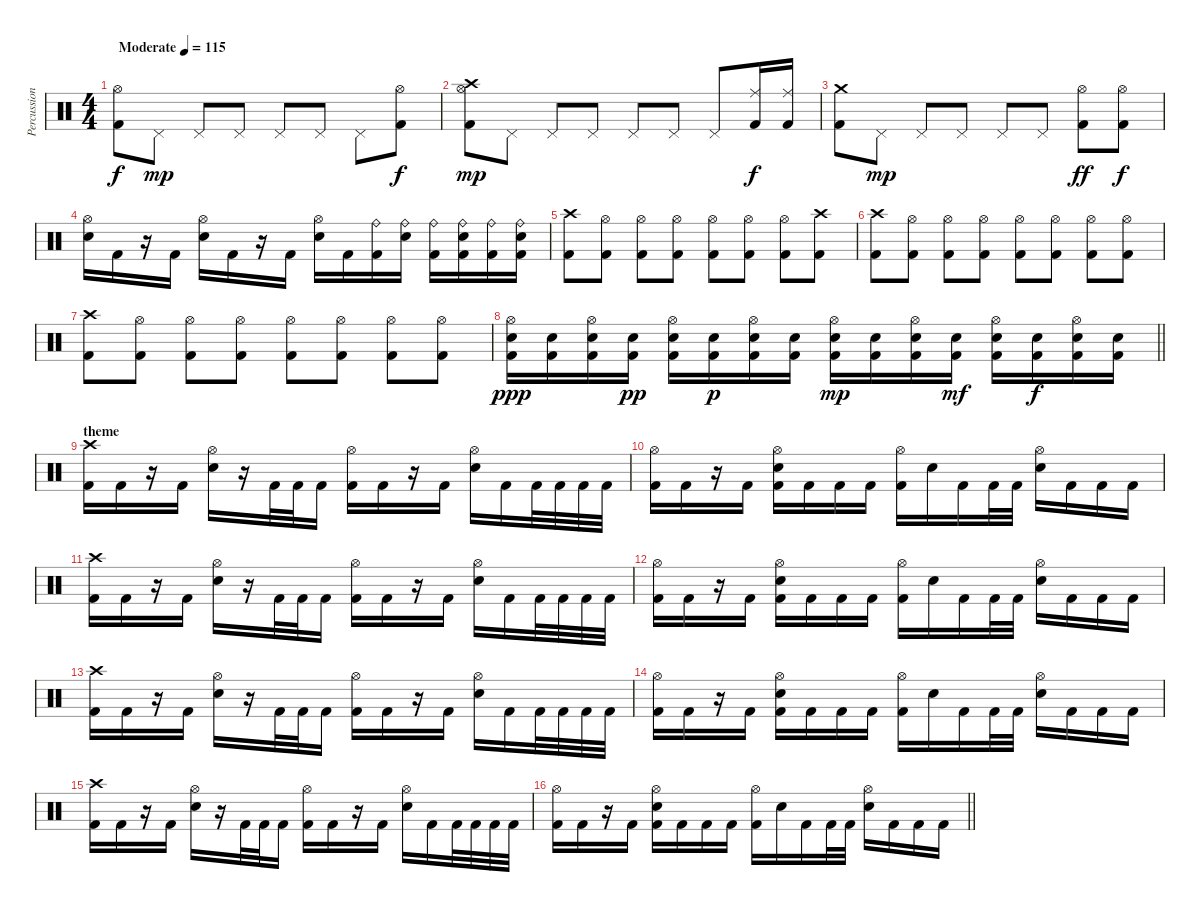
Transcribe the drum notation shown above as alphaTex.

\track ("Percussion" "Percussion") {instrument percussion}
\staff {score}
\articulation defaults
\ts (4 4)
\tempo (115 "Moderate")
\clef neutral
\ks c
("Hi-Hat (open)" "Kick (hit) 2").8{dy f} "Pedal Hi-Hat (hit)".8{dy mp} "Pedal Hi-Hat (hit)".8 "Pedal Hi-Hat (hit)".8 "Pedal Hi-Hat (hit)".8 "Pedal Hi-Hat (hit)".8 "Pedal Hi-Hat (hit)".8 ("Hi-Hat (open)" "Kick (hit) 2").8{dy f} |
("Hi-Hat (open)" "Crash high (hit)" "Kick (hit) 2").8{dy mp} "Pedal Hi-Hat (hit)".8 "Pedal Hi-Hat (hit)".8 "Pedal Hi-Hat (hit)".8 "Pedal Hi-Hat (hit)".8 "Pedal Hi-Hat (hit)".8 "Pedal Hi-Hat (hit)".8 ("Ride (middle)" "Kick (hit) 2").16{dy f} ("Ride (middle)" "Kick (hit) 2").16 |
("Crash medium (hit)" "Kick (hit) 2").8 "Pedal Hi-Hat (hit)".8{dy mp} "Pedal Hi-Hat (hit)".8 "Pedal Hi-Hat (hit)".8 "Pedal Hi-Hat (hit)".8 "Pedal Hi-Hat (hit)".8 ("Hi-Hat (open)" "Kick (hit) 2").8{dy ff} ("Hi-Hat (open)" "Kick (hit) 2").8{dy f} |
("Hi-Hat (open)" "Snare (hit) 2").16 "Kick (hit) 2".16 r.16 "Kick (hit) 2".16 ("Hi-Hat (open)" "Snare (hit) 2").16 "Kick (hit) 2".16 r.16 "Kick (hit) 2".16 ("Hi-Hat (open)" "Snare (hit) 2").16 "Kick (hit) 2".16 ("Ride (bell)" "Kick (hit) 2").16 ("Ride (bell)" "Snare (hit) 2").16 ("Ride (bell)" "Kick (hit) 2").16 ("Ride (bell)" "Snare (hit) 2" "Kick (hit) 2").16 ("Ride (bell)" "Kick (hit) 2").16 ("Ride (bell)" "Snare (hit) 2" "Kick (hit) 2").16 |
("Crash high (hit)" "Kick (hit) 2").8 ("Hi-Hat (open)" "Kick (hit) 2").8 ("Hi-Hat (open)" "Kick (hit) 2").8 ("Hi-Hat (open)" "Kick (hit) 2").8 ("Hi-Hat (open)" "Kick (hit) 2").8 ("Hi-Hat (open)" "Kick (hit) 2").8 ("Hi-Hat (open)" "Kick (hit) 2").8 ("Crash high (hit)" "Kick (hit) 2").8 |
("Crash high (hit)" "Kick (hit) 2").8 ("Hi-Hat (open)" "Kick (hit) 2").8 ("Hi-Hat (open)" "Kick (hit) 2").8 ("Hi-Hat (open)" "Kick (hit) 2").8 ("Hi-Hat (open)" "Kick (hit) 2").8 ("Hi-Hat (open)" "Kick (hit) 2").8 ("Hi-Hat (open)" "Kick (hit) 2").8 ("Hi-Hat (open)" "Kick (hit) 2").8 |
("Crash high (hit)" "Kick (hit) 2").8 ("Hi-Hat (open)" "Kick (hit) 2").8 ("Hi-Hat (open)" "Kick (hit) 2").8 ("Hi-Hat (open)" "Kick (hit) 2").8 ("Hi-Hat (open)" "Kick (hit) 2").8 ("Hi-Hat (open)" "Kick (hit) 2").8 ("Hi-Hat (open)" "Kick (hit) 2").8 ("Hi-Hat (open)" "Kick (hit) 2").8 |
\barLineRight lightlight
("Hi-Hat (open)" "Snare (hit) 2" "Kick (hit) 2").16{dy ppp} ("Snare (hit) 2" "Kick (hit) 2").16 ("Hi-Hat (open)" "Snare (hit) 2" "Kick (hit) 2").16 ("Snare (hit) 2" "Kick (hit) 2").16{dy pp} ("Hi-Hat (open)" "Snare (hit) 2" "Kick (hit) 2").16 ("Snare (hit) 2" "Kick (hit) 2").16{dy p} ("Hi-Hat (open)" "Snare (hit) 2" "Kick (hit) 2").16 ("Snare (hit) 2" "Kick (hit) 2").16 ("Hi-Hat (open)" "Snare (hit) 2" "Kick (hit) 2").16{dy mp} ("Snare (hit) 2" "Kick (hit) 2").16 ("Hi-Hat (open)" "Snare (hit) 2" "Kick (hit) 2").16 ("Snare (hit) 2" "Kick (hit) 2").16{dy mf} ("Hi-Hat (open)" "Snare (hit) 2" "Kick (hit) 2").16 ("Snare (hit) 2" "Kick (hit) 2").16{dy f} ("Hi-Hat (open)" "Snare (hit) 2" "Kick (hit) 2").16 ("Snare (hit) 2" "Kick (hit) 2").16 |
\section ("" "theme")
("Crash high (hit)" "Kick (hit) 2").16 "Kick (hit) 2".16 r.16 "Kick (hit) 2".16 ("Hi-Hat (open)" "Snare (hit) 2").16 r.16 "Kick (hit) 2".32 "Kick (hit) 2".32 "Kick (hit) 2".16 ("Hi-Hat (open)" "Kick (hit) 2").16 "Kick (hit) 2".16 r.16 "Kick (hit) 2".16 ("Hi-Hat (open)" "Snare (hit) 2").16 "Kick (hit) 2".16 "Kick (hit) 2".32 "Kick (hit) 2".32 "Kick (hit) 2".32 "Kick (hit) 2".32 |
("Hi-Hat (open)" "Kick (hit) 2").16 "Kick (hit) 2".16 r.16 "Kick (hit) 2".16 ("Hi-Hat (open)" "Snare (hit) 2" "Kick (hit) 2").16 "Kick (hit) 2".16 "Kick (hit) 2".16 "Kick (hit) 2".16 ("Hi-Hat (open)" "Kick (hit) 2").16 "Snare (hit) 2".16 "Kick (hit) 2".16 "Kick (hit) 2".32 "Kick (hit) 2".32 ("Hi-Hat (open)" "Snare (hit) 2").16 "Kick (hit) 2".16 "Kick (hit) 2".16 "Kick (hit) 2".16 |
("Crash high (hit)" "Kick (hit) 2").16 "Kick (hit) 2".16 r.16 "Kick (hit) 2".16 ("Hi-Hat (open)" "Snare (hit) 2").16 r.16 "Kick (hit) 2".32 "Kick (hit) 2".32 "Kick (hit) 2".16 ("Hi-Hat (open)" "Kick (hit) 2").16 "Kick (hit) 2".16 r.16 "Kick (hit) 2".16 ("Hi-Hat (open)" "Snare (hit) 2").16 "Kick (hit) 2".16 "Kick (hit) 2".32 "Kick (hit) 2".32 "Kick (hit) 2".32 "Kick (hit) 2".32 |
("Hi-Hat (open)" "Kick (hit) 2").16 "Kick (hit) 2".16 r.16 "Kick (hit) 2".16 ("Hi-Hat (open)" "Snare (hit) 2" "Kick (hit) 2").16 "Kick (hit) 2".16 "Kick (hit) 2".16 "Kick (hit) 2".16 ("Hi-Hat (open)" "Kick (hit) 2").16 "Snare (hit) 2".16 "Kick (hit) 2".16 "Kick (hit) 2".32 "Kick (hit) 2".32 ("Hi-Hat (open)" "Snare (hit) 2").16 "Kick (hit) 2".16 "Kick (hit) 2".16 "Kick (hit) 2".16 |
("Crash high (hit)" "Kick (hit) 2").16 "Kick (hit) 2".16 r.16 "Kick (hit) 2".16 ("Hi-Hat (open)" "Snare (hit) 2").16 r.16 "Kick (hit) 2".32 "Kick (hit) 2".32 "Kick (hit) 2".16 ("Hi-Hat (open)" "Kick (hit) 2").16 "Kick (hit) 2".16 r.16 "Kick (hit) 2".16 ("Hi-Hat (open)" "Snare (hit) 2").16 "Kick (hit) 2".16 "Kick (hit) 2".32 "Kick (hit) 2".32 "Kick (hit) 2".32 "Kick (hit) 2".32 |
("Hi-Hat (open)" "Kick (hit) 2").16 "Kick (hit) 2".16 r.16 "Kick (hit) 2".16 ("Hi-Hat (open)" "Snare (hit) 2" "Kick (hit) 2").16 "Kick (hit) 2".16 "Kick (hit) 2".16 "Kick (hit) 2".16 ("Hi-Hat (open)" "Kick (hit) 2").16 "Snare (hit) 2".16 "Kick (hit) 2".16 "Kick (hit) 2".32 "Kick (hit) 2".32 ("Hi-Hat (open)" "Snare (hit) 2").16 "Kick (hit) 2".16 "Kick (hit) 2".16 "Kick (hit) 2".16 |
("Crash high (hit)" "Kick (hit) 2").16 "Kick (hit) 2".16 r.16 "Kick (hit) 2".16 ("Hi-Hat (open)" "Snare (hit) 2").16 r.16 "Kick (hit) 2".32 "Kick (hit) 2".32 "Kick (hit) 2".16 ("Hi-Hat (open)" "Kick (hit) 2").16 "Kick (hit) 2".16 r.16 "Kick (hit) 2".16 ("Hi-Hat (open)" "Snare (hit) 2").16 "Kick (hit) 2".16 "Kick (hit) 2".32 "Kick (hit) 2".32 "Kick (hit) 2".32 "Kick (hit) 2".32 |
\barLineRight lightlight
("Hi-Hat (open)" "Kick (hit) 2").16 "Kick (hit) 2".16 r.16 "Kick (hit) 2".16 ("Hi-Hat (open)" "Snare (hit) 2" "Kick (hit) 2").16 "Kick (hit) 2".16 "Kick (hit) 2".16 "Kick (hit) 2".16 ("Hi-Hat (open)" "Kick (hit) 2").16 "Snare (hit) 2".16 "Kick (hit) 2".16 "Kick (hit) 2".32 "Kick (hit) 2".32 ("Hi-Hat (open)" "Snare (hit) 2").16 "Kick (hit) 2".16 "Kick (hit) 2".16 "Kick (hit) 2".16
